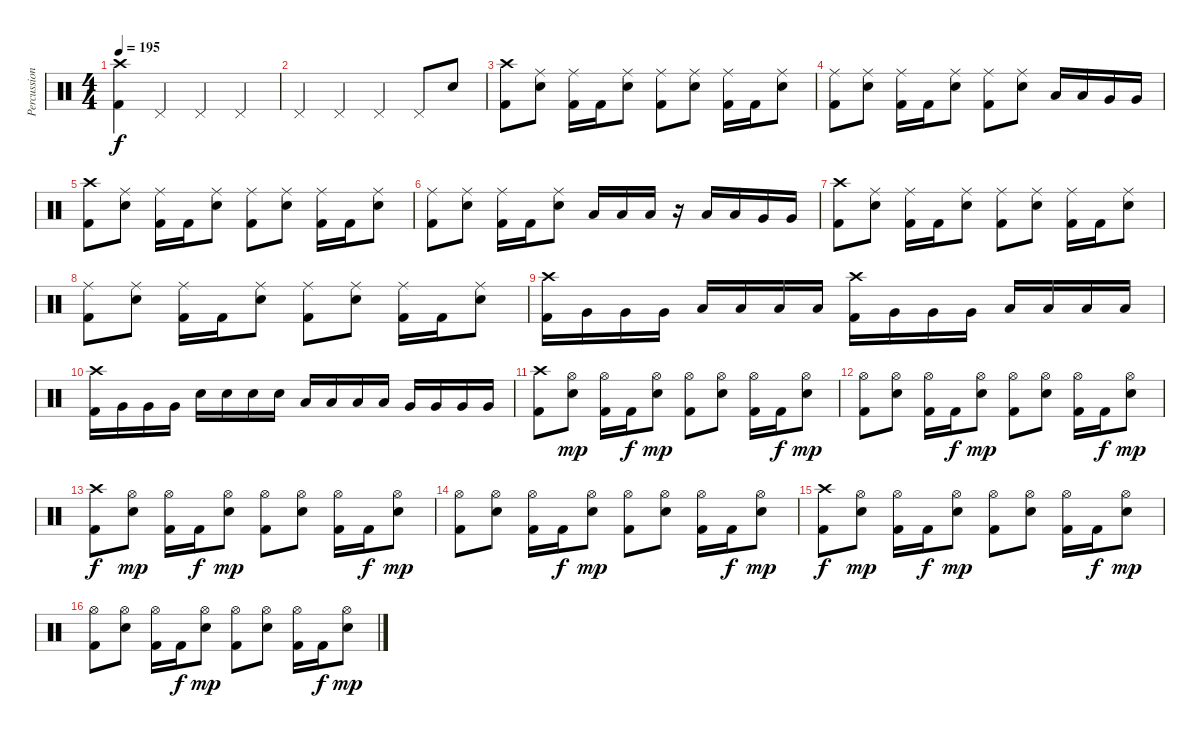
\track ("Percussions" "Percussion") {instrument percussion}
\staff {score}
\articulation defaults
\ts (4 4)
\tempo 195
\clef neutral
\ks c
("Crash high (hit)" "Kick (hit) 2").4{dy f} "Pedal Hi-Hat (hit)".4 "Pedal Hi-Hat (hit)".4 "Pedal Hi-Hat (hit)".4 |
"Pedal Hi-Hat (hit)".4 "Pedal Hi-Hat (hit)".4 "Pedal Hi-Hat (hit)".4 "Pedal Hi-Hat (hit)".8 "Snare (hit) 2".8 |
("Crash high (hit)" "Kick (hit) 2").8 ("Ride (middle)" "Snare (hit) 2").8 ("Ride (middle)" "Kick (hit) 2").16 "Kick (hit) 2".16 ("Ride (middle)" "Snare (hit) 2").8 ("Ride (middle)" "Kick (hit) 2").8 ("Ride (middle)" "Snare (hit) 2").8 ("Ride (middle)" "Kick (hit) 2").16 "Kick (hit) 2".16 ("Ride (middle)" "Snare (hit) 2").8 |
("Ride (middle)" "Kick (hit) 2").8 ("Ride (middle)" "Snare (hit) 2").8 ("Ride (middle)" "Kick (hit) 2").16 "Kick (hit) 2".16 ("Ride (middle)" "Snare (hit) 2").8 ("Ride (middle)" "Kick (hit) 2").8 ("Ride (middle)" "Snare (hit) 2").8 "Low Tom (hit)".16 "Low Tom (hit)".16 "Very Low Tom (hit)".16 "Very Low Tom (hit)".16 |
("Crash high (hit)" "Kick (hit) 2").8 ("Ride (middle)" "Snare (hit) 2").8 ("Ride (middle)" "Kick (hit) 2").16 "Kick (hit) 2".16 ("Ride (middle)" "Snare (hit) 2").8 ("Ride (middle)" "Kick (hit) 2").8 ("Ride (middle)" "Snare (hit) 2").8 ("Ride (middle)" "Kick (hit) 2").16 "Kick (hit) 2".16 ("Ride (middle)" "Snare (hit) 2").8 |
("Ride (middle)" "Kick (hit) 2").8 ("Ride (middle)" "Snare (hit) 2").8 ("Ride (middle)" "Kick (hit) 2").16 "Kick (hit) 2".16 ("Ride (middle)" "Snare (hit) 2").8 "Low Tom (hit)".16 "Low Tom (hit)".16 "Low Tom (hit)".16 r.16 "Low Tom (hit)".16 "Low Tom (hit)".16 "Very Low Tom (hit)".16 "Very Low Tom (hit)".16 |
("Crash high (hit)" "Kick (hit) 2").8 ("Ride (middle)" "Snare (hit) 2").8 ("Ride (middle)" "Kick (hit) 2").16 "Kick (hit) 2".16 ("Ride (middle)" "Snare (hit) 2").8 ("Ride (middle)" "Kick (hit) 2").8 ("Ride (middle)" "Snare (hit) 2").8 ("Ride (middle)" "Kick (hit) 2").16 "Kick (hit) 2".16 ("Ride (middle)" "Snare (hit) 2").8 |
("Ride (middle)" "Kick (hit) 2").8 ("Ride (middle)" "Snare (hit) 2").8 ("Ride (middle)" "Kick (hit) 2").16 "Kick (hit) 2".16 ("Ride (middle)" "Snare (hit) 2").8 ("Ride (middle)" "Kick (hit) 2").8 ("Ride (middle)" "Snare (hit) 2").8 ("Ride (middle)" "Kick (hit) 2").16 "Kick (hit) 2".16 ("Ride (middle)" "Snare (hit) 2").8 |
("Crash high (hit)" "Kick (hit) 2").16 "Very Low Tom (hit)".16 "Very Low Tom (hit)".16 "Very Low Tom (hit)".16 "Low Tom (hit)".16 "Low Tom (hit)".16 "Low Tom (hit)".16 "Low Tom (hit)".16 ("Crash high (hit)" "Kick (hit) 2").16 "Very Low Tom (hit)".16 "Very Low Tom (hit)".16 "Very Low Tom (hit)".16 "Low Tom (hit)".16 "Low Tom (hit)".16 "Low Tom (hit)".16 "Low Tom (hit)".16 |
("Crash high (hit)" "Kick (hit) 2").16 "Very Low Tom (hit)".16 "Very Low Tom (hit)".16 "Very Low Tom (hit)".16 "Snare (hit) 2".16 "Snare (hit) 2".16 "Snare (hit) 2".16 "Snare (hit) 2".16 "Low Tom (hit)".16 "Low Tom (hit)".16 "Low Tom (hit)".16 "Low Tom (hit)".16 "Very Low Tom (hit)".16 "Very Low Tom (hit)".16 "Very Low Tom (hit)".16 "Very Low Tom (hit)".16 |
("Crash high (hit)" "Kick (hit) 2").8 ("Hi-Hat (open)" "Snare (hit) 2").8{dy mp} ("Hi-Hat (open)" "Kick (hit) 2").16 "Kick (hit) 2".16{dy f} ("Hi-Hat (open)" "Snare (hit) 2").8{dy mp} ("Hi-Hat (open)" "Kick (hit) 2").8 ("Hi-Hat (open)" "Snare (hit) 2").8 ("Hi-Hat (open)" "Kick (hit) 2").16 "Kick (hit) 2".16{dy f} ("Hi-Hat (open)" "Snare (hit) 2").8{dy mp} |
("Hi-Hat (open)" "Kick (hit) 2").8 ("Hi-Hat (open)" "Snare (hit) 2").8 ("Hi-Hat (open)" "Kick (hit) 2").16 "Kick (hit) 2".16{dy f} ("Hi-Hat (open)" "Snare (hit) 2").8{dy mp} ("Hi-Hat (open)" "Kick (hit) 2").8 ("Hi-Hat (open)" "Snare (hit) 2").8 ("Hi-Hat (open)" "Kick (hit) 2").16 "Kick (hit) 2".16{dy f} ("Hi-Hat (open)" "Snare (hit) 2").8{dy mp} |
("Crash high (hit)" "Kick (hit) 2").8{dy f} ("Hi-Hat (open)" "Snare (hit) 2").8{dy mp} ("Hi-Hat (open)" "Kick (hit) 2").16 "Kick (hit) 2".16{dy f} ("Hi-Hat (open)" "Snare (hit) 2").8{dy mp} ("Hi-Hat (open)" "Kick (hit) 2").8 ("Hi-Hat (open)" "Snare (hit) 2").8 ("Hi-Hat (open)" "Kick (hit) 2").16 "Kick (hit) 2".16{dy f} ("Hi-Hat (open)" "Snare (hit) 2").8{dy mp} |
("Hi-Hat (open)" "Kick (hit) 2").8 ("Hi-Hat (open)" "Snare (hit) 2").8 ("Hi-Hat (open)" "Kick (hit) 2").16 "Kick (hit) 2".16{dy f} ("Hi-Hat (open)" "Snare (hit) 2").8{dy mp} ("Hi-Hat (open)" "Kick (hit) 2").8 ("Hi-Hat (open)" "Snare (hit) 2").8 ("Hi-Hat (open)" "Kick (hit) 2").16 "Kick (hit) 2".16{dy f} ("Hi-Hat (open)" "Snare (hit) 2").8{dy mp} |
("Crash high (hit)" "Kick (hit) 2").8{dy f} ("Hi-Hat (open)" "Snare (hit) 2").8{dy mp} ("Hi-Hat (open)" "Kick (hit) 2").16 "Kick (hit) 2".16{dy f} ("Hi-Hat (open)" "Snare (hit) 2").8{dy mp} ("Hi-Hat (open)" "Kick (hit) 2").8 ("Hi-Hat (open)" "Snare (hit) 2").8 ("Hi-Hat (open)" "Kick (hit) 2").16 "Kick (hit) 2".16{dy f} ("Hi-Hat (open)" "Snare (hit) 2").8{dy mp} |
("Hi-Hat (open)" "Kick (hit) 2").8 ("Hi-Hat (open)" "Snare (hit) 2").8 ("Hi-Hat (open)" "Kick (hit) 2").16 "Kick (hit) 2".16{dy f} ("Hi-Hat (open)" "Snare (hit) 2").8{dy mp} ("Hi-Hat (open)" "Kick (hit) 2").8 ("Hi-Hat (open)" "Snare (hit) 2").8 ("Hi-Hat (open)" "Kick (hit) 2").16 "Kick (hit) 2".16{dy f} ("Hi-Hat (open)" "Snare (hit) 2").8{dy mp}
